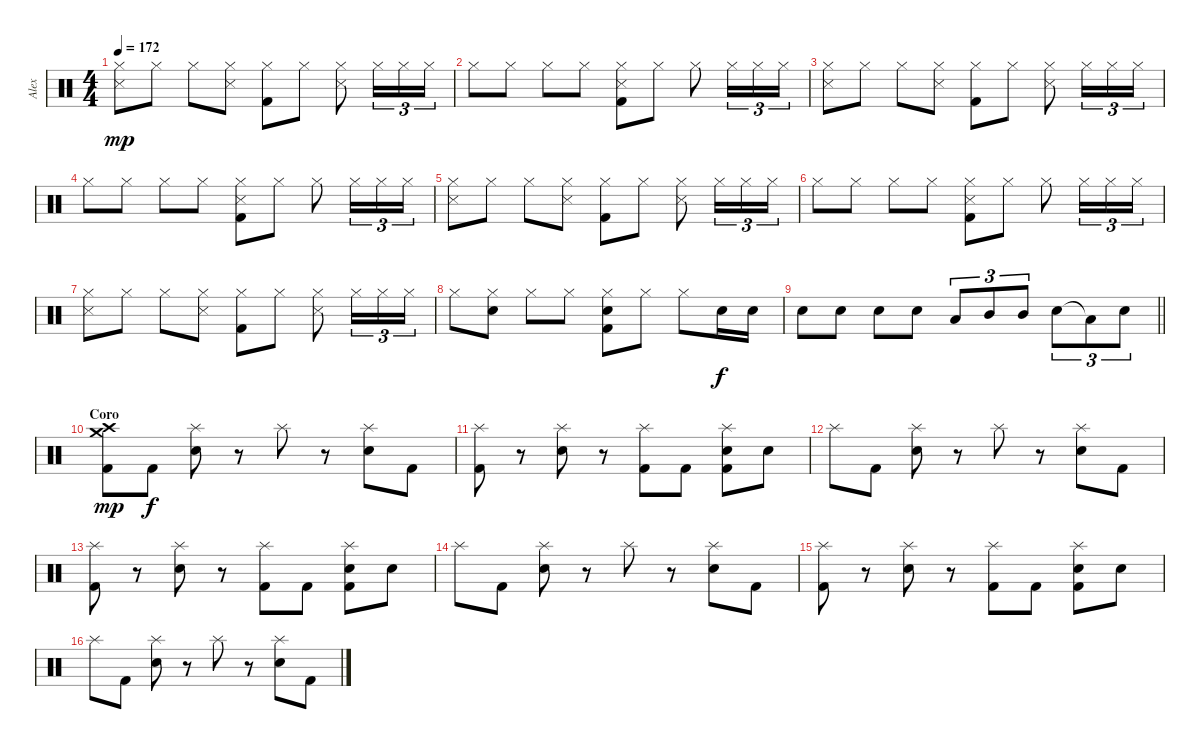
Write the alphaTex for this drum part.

\track ("Alex" "Alex") {instrument percussion}
\staff {score}
\articulation defaults
\ts (4 4)
\tempo 172
\clef neutral
\ks c
("Hi-Hat (closed)" "Snare (side stick) 3").8{dy mp} "Hi-Hat (closed)".8 "Hi-Hat (closed)".8 ("Hi-Hat (closed)" "Snare (side stick) 3").8 ("Hi-Hat (closed)" "Kick (hit) 2").8 "Hi-Hat (closed)".8 ("Hi-Hat (closed)" "Snare (side stick) 3").8 "Hi-Hat (closed)".16{tu (3 2)} "Hi-Hat (closed)".16{tu (3 2)} "Hi-Hat (closed)".16{tu (3 2)} |
"Hi-Hat (closed)".8 "Hi-Hat (closed)".8 "Hi-Hat (closed)".8 "Hi-Hat (closed)".8 ("Hi-Hat (closed)" "Snare (side stick) 3" "Kick (hit) 2").8 "Hi-Hat (closed)".8 "Hi-Hat (closed)".8 "Hi-Hat (closed)".16{tu (3 2)} "Hi-Hat (closed)".16{tu (3 2)} "Hi-Hat (closed)".16{tu (3 2)} |
("Hi-Hat (closed)" "Snare (side stick) 3").8 "Hi-Hat (closed)".8 "Hi-Hat (closed)".8 ("Hi-Hat (closed)" "Snare (side stick) 3").8 ("Hi-Hat (closed)" "Kick (hit) 2").8 "Hi-Hat (closed)".8 ("Hi-Hat (closed)" "Snare (side stick) 3").8 "Hi-Hat (closed)".16{tu (3 2)} "Hi-Hat (closed)".16{tu (3 2)} "Hi-Hat (closed)".16{tu (3 2)} |
"Hi-Hat (closed)".8 "Hi-Hat (closed)".8 "Hi-Hat (closed)".8 "Hi-Hat (closed)".8 ("Hi-Hat (closed)" "Snare (side stick) 3" "Kick (hit) 2").8 "Hi-Hat (closed)".8 "Hi-Hat (closed)".8 "Hi-Hat (closed)".16{tu (3 2)} "Hi-Hat (closed)".16{tu (3 2)} "Hi-Hat (closed)".16{tu (3 2)} |
("Hi-Hat (closed)" "Snare (side stick) 3").8 "Hi-Hat (closed)".8 "Hi-Hat (closed)".8 ("Hi-Hat (closed)" "Snare (side stick) 3").8 ("Hi-Hat (closed)" "Kick (hit) 2").8 "Hi-Hat (closed)".8 ("Hi-Hat (closed)" "Snare (side stick) 3").8 "Hi-Hat (closed)".16{tu (3 2)} "Hi-Hat (closed)".16{tu (3 2)} "Hi-Hat (closed)".16{tu (3 2)} |
"Hi-Hat (closed)".8 "Hi-Hat (closed)".8 "Hi-Hat (closed)".8 "Hi-Hat (closed)".8 ("Hi-Hat (closed)" "Snare (side stick) 3" "Kick (hit) 2").8 "Hi-Hat (closed)".8 "Hi-Hat (closed)".8 "Hi-Hat (closed)".16{tu (3 2)} "Hi-Hat (closed)".16{tu (3 2)} "Hi-Hat (closed)".16{tu (3 2)} |
("Hi-Hat (closed)" "Snare (side stick) 3").8 "Hi-Hat (closed)".8 "Hi-Hat (closed)".8 ("Hi-Hat (closed)" "Snare (side stick) 3").8 ("Hi-Hat (closed)" "Kick (hit) 2").8 "Hi-Hat (closed)".8 ("Hi-Hat (closed)" "Snare (side stick) 3").8 "Hi-Hat (closed)".16{tu (3 2)} "Hi-Hat (closed)".16{tu (3 2)} "Hi-Hat (closed)".16{tu (3 2)} |
"Hi-Hat (closed)".8 ("Hi-Hat (closed)" "Electric Snare (hit)").8 "Hi-Hat (closed)".8 "Hi-Hat (closed)".8 ("Hi-Hat (closed)" "Electric Snare (hit)" "Kick (hit) 2").8 "Hi-Hat (closed)".8 "Hi-Hat (closed)".8 "Electric Snare (hit)".16{dy f} "Electric Snare (hit)".16 |
\barLineRight lightlight "Electric Snare (hit)".8 "Electric Snare (hit)".8 "Electric Snare (hit)".8 "Electric Snare (hit)".8 "Low Tom (hit)".8{tu (3 2)} "Mid Tom (hit)".8{tu (3 2)} "Mid Tom (hit)".8{tu (3 2)} "Electric Snare (hit)".8{tu (3 2)} "Low Tom (hit)"{t}.8{tu (3 2)} "Electric Snare (hit)".8{tu (3 2)}
|
\section ("" "Coro")
("Crash high (hit)" "Crash medium (hit)" "Kick (hit) 2").8{dy mp} "Kick (hit) 2".8{dy f} ("Splash (hit)" "Electric Snare (hit)").8 r.8 "Splash (hit)".8 r.8 ("Splash (hit)" "Electric Snare (hit)").8 "Kick (hit) 2".8 |
("Splash (hit)" "Kick (hit) 2").8 r.8 ("Splash (hit)" "Electric Snare (hit)").8 r.8 ("Splash (hit)" "Kick (hit) 2").8 "Kick (hit) 2".8 ("Splash (hit)" "Electric Snare (hit)" "Kick (hit) 2").8 "Electric Snare (hit)".8 |
"Splash (hit)".8 "Kick (hit) 2".8 ("Splash (hit)" "Electric Snare (hit)").8 r.8 "Splash (hit)".8 r.8 ("Splash (hit)" "Electric Snare (hit)").8 "Kick (hit) 2".8 |
("Splash (hit)" "Kick (hit) 2").8 r.8 ("Splash (hit)" "Electric Snare (hit)").8 r.8 ("Splash (hit)" "Kick (hit) 2").8 "Kick (hit) 2".8 ("Splash (hit)" "Electric Snare (hit)" "Kick (hit) 2").8 "Electric Snare (hit)".8 |
"Splash (hit)".8 "Kick (hit) 2".8 ("Splash (hit)" "Electric Snare (hit)").8 r.8 "Splash (hit)".8 r.8 ("Splash (hit)" "Electric Snare (hit)").8 "Kick (hit) 2".8 |
("Splash (hit)" "Kick (hit) 2").8 r.8 ("Splash (hit)" "Electric Snare (hit)").8 r.8 ("Splash (hit)" "Kick (hit) 2").8 "Kick (hit) 2".8 ("Splash (hit)" "Electric Snare (hit)" "Kick (hit) 2").8 "Electric Snare (hit)".8 |
"Splash (hit)".8 "Kick (hit) 2".8 ("Splash (hit)" "Electric Snare (hit)").8 r.8 "Splash (hit)".8 r.8 ("Splash (hit)" "Electric Snare (hit)").8 "Kick (hit) 2".8
